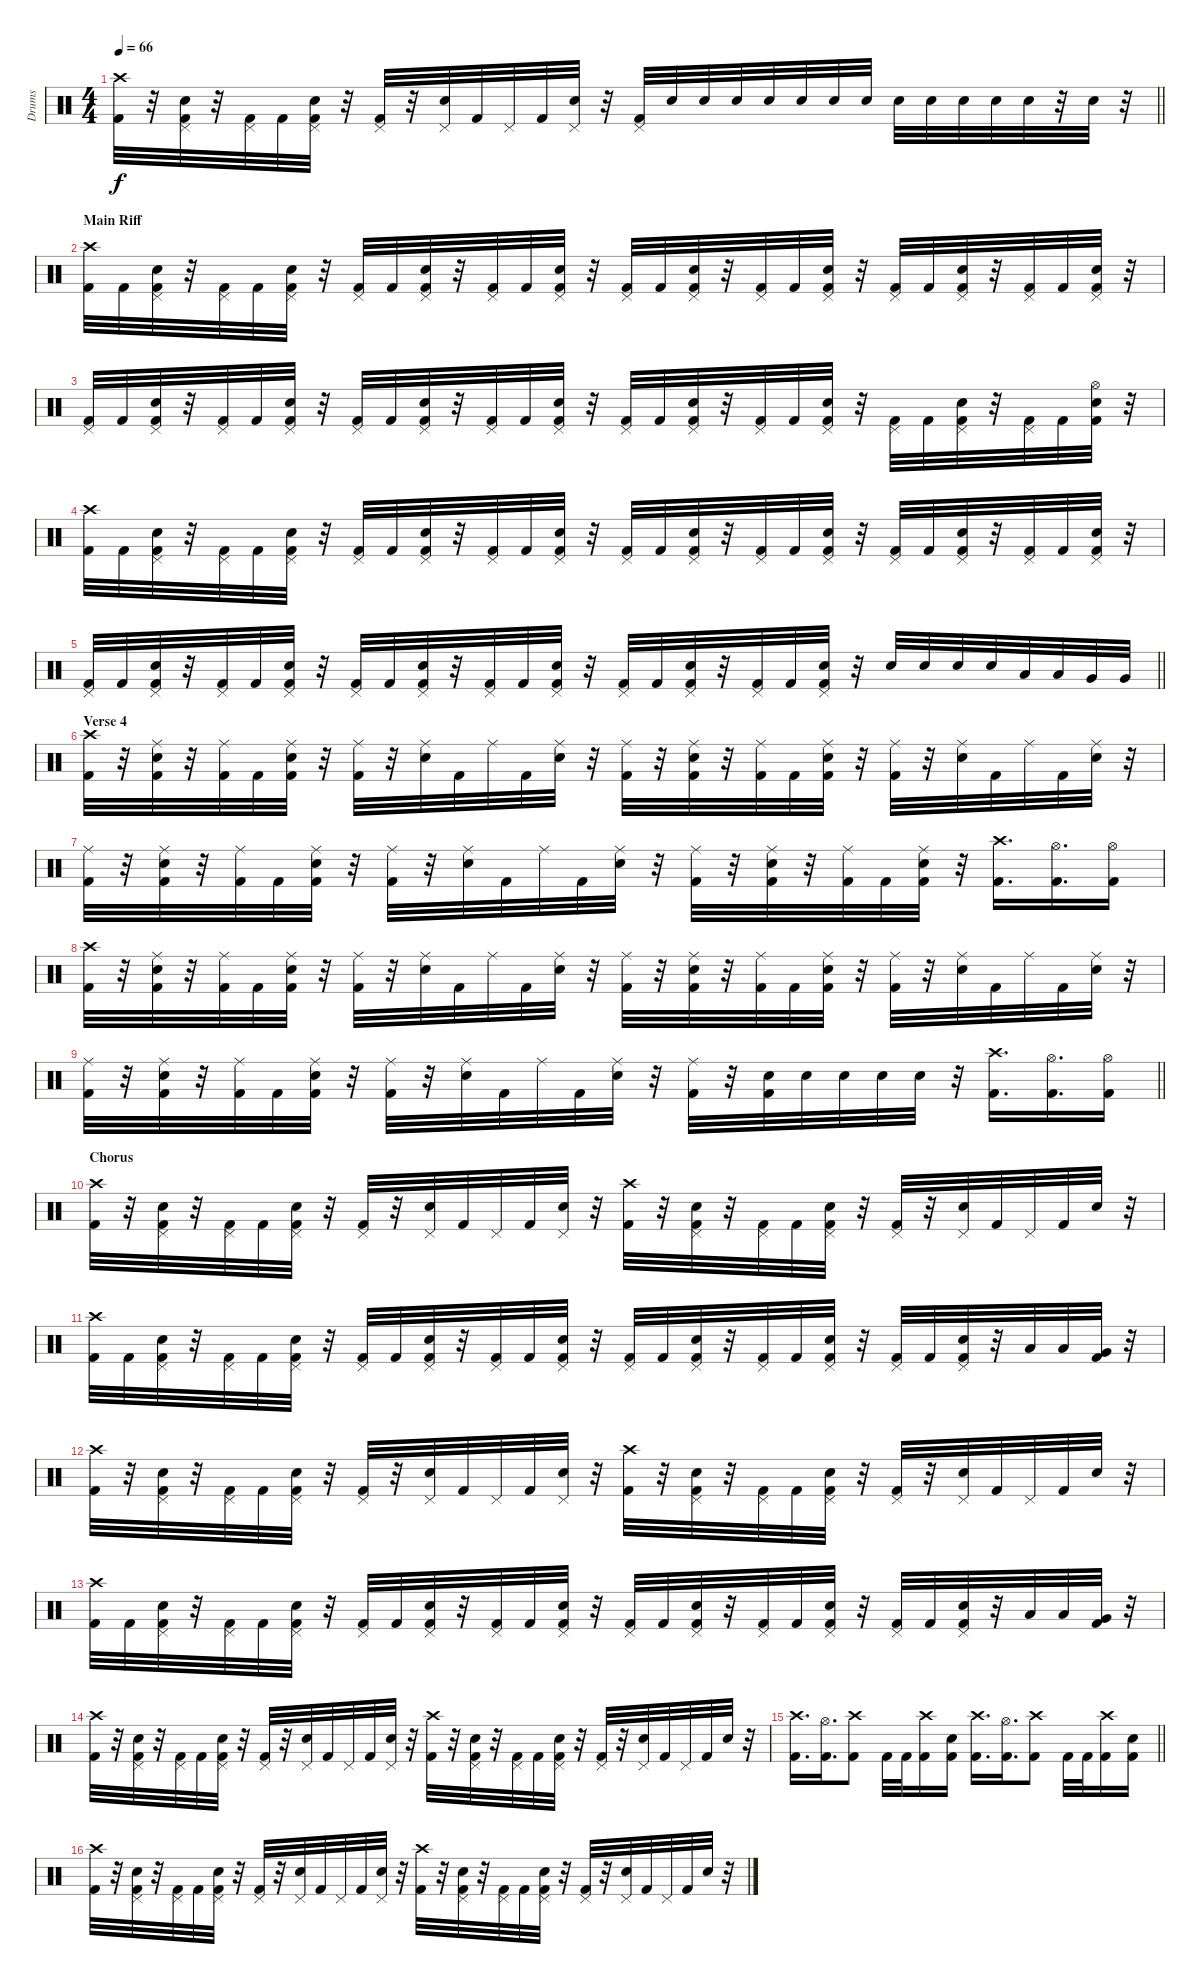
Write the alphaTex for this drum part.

\track ("Drums" "Drums") {instrument percussion}
\staff {score}
\articulation defaults
\ts (4 4)
\tempo 66
\clef neutral
\barLineRight lightlight
\ks c
("Crash high (hit)" "Kick (hit) 2").32{dy f} r.32 ("Pedal Hi-Hat (hit)" "Snare (hit) 2" "Kick (hit) 2").32 r.32 ("Pedal Hi-Hat (hit)" "Kick (hit) 2").32 "Kick (hit) 2".32 ("Pedal Hi-Hat (hit)" "Snare (hit) 2" "Kick (hit) 2").32 r.32 ("Pedal Hi-Hat (hit)" "Kick (hit) 2").32 r.32 ("Pedal Hi-Hat (hit)" "Snare (hit) 2").32 "Kick (hit) 2".32 "Pedal Hi-Hat (hit)".32 "Kick (hit) 2".32 ("Pedal Hi-Hat (hit)" "Snare (hit) 2").32 r.32 ("Pedal Hi-Hat (hit)" "Kick (hit) 2").32 "Snare (hit) 2".32 "Snare (hit) 2".32 "Snare (hit) 2".32 "Snare (hit) 2".32 "Snare (hit) 2".32 "Snare (hit) 2".32 "Snare (hit) 2".32 "Snare (hit) 2".32 "Snare (hit) 2".32 "Snare (hit) 2".32 "Snare (hit) 2".32 "Snare (hit) 2".32 r.32 "Snare (hit) 2".32 r.32 |
\section ("" "Main Riff")
("Crash high (hit)" "Kick (hit) 2").32 "Kick (hit) 2".32 ("Pedal Hi-Hat (hit)" "Snare (hit) 2" "Kick (hit) 2").32 r.32 ("Pedal Hi-Hat (hit)" "Kick (hit) 2").32 "Kick (hit) 2".32 ("Pedal Hi-Hat (hit)" "Snare (hit) 2" "Kick (hit) 2").32 r.32 ("Pedal Hi-Hat (hit)" "Kick (hit) 2").32 "Kick (hit) 2".32 ("Pedal Hi-Hat (hit)" "Snare (hit) 2" "Kick (hit) 2").32 r.32 ("Pedal Hi-Hat (hit)" "Kick (hit) 2").32 "Kick (hit) 2".32 ("Pedal Hi-Hat (hit)" "Snare (hit) 2" "Kick (hit) 2").32 r.32 ("Pedal Hi-Hat (hit)" "Kick (hit) 2").32 "Kick (hit) 2".32 ("Pedal Hi-Hat (hit)" "Snare (hit) 2" "Kick (hit) 2").32 r.32 ("Pedal Hi-Hat (hit)" "Kick (hit) 2").32 "Kick (hit) 2".32 ("Pedal Hi-Hat (hit)" "Snare (hit) 2" "Kick (hit) 2").32 r.32 ("Pedal Hi-Hat (hit)" "Kick (hit) 2").32 "Kick (hit) 2".32 ("Pedal Hi-Hat (hit)" "Snare (hit) 2" "Kick (hit) 2").32 r.32 ("Pedal Hi-Hat (hit)" "Kick (hit) 2").32 "Kick (hit) 2".32 ("Pedal Hi-Hat (hit)" "Snare (hit) 2" "Kick (hit) 2").32 r.32 |
("Pedal Hi-Hat (hit)" "Kick (hit) 2").32 "Kick (hit) 2".32 ("Pedal Hi-Hat (hit)" "Snare (hit) 2" "Kick (hit) 2").32 r.32 ("Pedal Hi-Hat (hit)" "Kick (hit) 2").32 "Kick (hit) 2".32 ("Pedal Hi-Hat (hit)" "Snare (hit) 2" "Kick (hit) 2").32 r.32 ("Pedal Hi-Hat (hit)" "Kick (hit) 2").32 "Kick (hit) 2".32 ("Pedal Hi-Hat (hit)" "Snare (hit) 2" "Kick (hit) 2").32 r.32 ("Pedal Hi-Hat (hit)" "Kick (hit) 2").32 "Kick (hit) 2".32 ("Pedal Hi-Hat (hit)" "Snare (hit) 2" "Kick (hit) 2").32 r.32 ("Pedal Hi-Hat (hit)" "Kick (hit) 2").32 "Kick (hit) 2".32 ("Pedal Hi-Hat (hit)" "Snare (hit) 2" "Kick (hit) 2").32 r.32 ("Pedal Hi-Hat (hit)" "Kick (hit) 2").32 "Kick (hit) 2".32 ("Pedal Hi-Hat (hit)" "Snare (hit) 2" "Kick (hit) 2").32 r.32 ("Pedal Hi-Hat (hit)" "Kick (hit) 2").32 "Kick (hit) 2".32 ("Pedal Hi-Hat (hit)" "Snare (hit) 2" "Kick (hit) 2").32 r.32 ("Pedal Hi-Hat (hit)" "Kick (hit) 2").32 "Kick (hit) 2".32 ("Hi-Hat (open)" "Snare (hit) 2" "Kick (hit) 2").32 r.32 |
("Crash high (hit)" "Kick (hit) 2").32 "Kick (hit) 2".32 ("Pedal Hi-Hat (hit)" "Snare (hit) 2" "Kick (hit) 2").32 r.32 ("Pedal Hi-Hat (hit)" "Kick (hit) 2").32 "Kick (hit) 2".32 ("Pedal Hi-Hat (hit)" "Snare (hit) 2" "Kick (hit) 2").32 r.32 ("Pedal Hi-Hat (hit)" "Kick (hit) 2").32 "Kick (hit) 2".32 ("Pedal Hi-Hat (hit)" "Snare (hit) 2" "Kick (hit) 2").32 r.32 ("Pedal Hi-Hat (hit)" "Kick (hit) 2").32 "Kick (hit) 2".32 ("Pedal Hi-Hat (hit)" "Snare (hit) 2" "Kick (hit) 2").32 r.32 ("Pedal Hi-Hat (hit)" "Kick (hit) 2").32 "Kick (hit) 2".32 ("Pedal Hi-Hat (hit)" "Snare (hit) 2" "Kick (hit) 2").32 r.32 ("Pedal Hi-Hat (hit)" "Kick (hit) 2").32 "Kick (hit) 2".32 ("Pedal Hi-Hat (hit)" "Snare (hit) 2" "Kick (hit) 2").32 r.32 ("Pedal Hi-Hat (hit)" "Kick (hit) 2").32 "Kick (hit) 2".32 ("Pedal Hi-Hat (hit)" "Snare (hit) 2" "Kick (hit) 2").32 r.32 ("Pedal Hi-Hat (hit)" "Kick (hit) 2").32 "Kick (hit) 2".32 ("Pedal Hi-Hat (hit)" "Snare (hit) 2" "Kick (hit) 2").32 r.32 |
\barLineRight lightlight
("Pedal Hi-Hat (hit)" "Kick (hit) 2").32 "Kick (hit) 2".32 ("Pedal Hi-Hat (hit)" "Snare (hit) 2" "Kick (hit) 2").32 r.32 ("Pedal Hi-Hat (hit)" "Kick (hit) 2").32 "Kick (hit) 2".32 ("Pedal Hi-Hat (hit)" "Snare (hit) 2" "Kick (hit) 2").32 r.32 ("Pedal Hi-Hat (hit)" "Kick (hit) 2").32 "Kick (hit) 2".32 ("Pedal Hi-Hat (hit)" "Snare (hit) 2" "Kick (hit) 2").32 r.32 ("Pedal Hi-Hat (hit)" "Kick (hit) 2").32 "Kick (hit) 2".32 ("Pedal Hi-Hat (hit)" "Snare (hit) 2" "Kick (hit) 2").32 r.32 ("Pedal Hi-Hat (hit)" "Kick (hit) 2").32 "Kick (hit) 2".32 ("Pedal Hi-Hat (hit)" "Snare (hit) 2" "Kick (hit) 2").32 r.32 ("Pedal Hi-Hat (hit)" "Kick (hit) 2").32 "Kick (hit) 2".32 ("Pedal Hi-Hat (hit)" "Snare (hit) 2" "Kick (hit) 2").32 r.32 "Snare (hit) 2".32 "Snare (hit) 2".32 "Snare (hit) 2".32 "Snare (hit) 2".32 "Low Tom (hit)".32 "Low Tom (hit)".32 "Very Low Tom (hit)".32 "Very Low Tom (hit)".32 |
\section ("" "Verse 4")
("Crash high (hit)" "Kick (hit) 2").32 r.32 ("Ride (middle)" "Snare (hit) 2" "Kick (hit) 2").32 r.32 ("Ride (middle)" "Kick (hit) 2").32 "Kick (hit) 2".32 ("Ride (middle)" "Snare (hit) 2" "Kick (hit) 2").32 r.32 ("Ride (middle)" "Kick (hit) 2").32 r.32 ("Ride (middle)" "Snare (hit) 2").32 "Kick (hit) 2".32 "Ride (middle)".32 "Kick (hit) 2".32 ("Ride (middle)" "Snare (hit) 2").32 r.32 ("Ride (middle)" "Kick (hit) 2").32 r.32 ("Ride (middle)" "Snare (hit) 2" "Kick (hit) 2").32 r.32 ("Ride (middle)" "Kick (hit) 2").32 "Kick (hit) 2".32 ("Ride (middle)" "Snare (hit) 2" "Kick (hit) 2").32 r.32 ("Ride (middle)" "Kick (hit) 2").32 r.32 ("Ride (middle)" "Snare (hit) 2").32 "Kick (hit) 2".32 "Ride (middle)".32 "Kick (hit) 2".32 ("Ride (middle)" "Snare (hit) 2").32 r.32 |
("Ride (middle)" "Kick (hit) 2").32 r.32 ("Ride (middle)" "Snare (hit) 2" "Kick (hit) 2").32 r.32 ("Ride (middle)" "Kick (hit) 2").32 "Kick (hit) 2".32 ("Ride (middle)" "Snare (hit) 2" "Kick (hit) 2").32 r.32 ("Ride (middle)" "Kick (hit) 2").32 r.32 ("Ride (middle)" "Snare (hit) 2").32 "Kick (hit) 2".32 "Ride (middle)".32 "Kick (hit) 2".32 ("Ride (middle)" "Snare (hit) 2").32 r.32 ("Ride (middle)" "Kick (hit) 2").32 r.32 ("Ride (middle)" "Snare (hit) 2" "Kick (hit) 2").32 r.32 ("Ride (middle)" "Kick (hit) 2").32 "Kick (hit) 2".32 ("Ride (middle)" "Snare (hit) 2" "Kick (hit) 2").32 r.32 ("Crash high (hit)" "Kick (hit) 2").16{d} ("Hi-Hat (open)" "Kick (hit) 2").16{d} ("Hi-Hat (open)" "Kick (hit) 2").16 |
("Crash high (hit)" "Kick (hit) 2").32 r.32 ("Ride (middle)" "Snare (hit) 2" "Kick (hit) 2").32 r.32 ("Ride (middle)" "Kick (hit) 2").32 "Kick (hit) 2".32 ("Ride (middle)" "Snare (hit) 2" "Kick (hit) 2").32 r.32 ("Ride (middle)" "Kick (hit) 2").32 r.32 ("Ride (middle)" "Snare (hit) 2").32 "Kick (hit) 2".32 "Ride (middle)".32 "Kick (hit) 2".32 ("Ride (middle)" "Snare (hit) 2").32 r.32 ("Ride (middle)" "Kick (hit) 2").32 r.32 ("Ride (middle)" "Snare (hit) 2" "Kick (hit) 2").32 r.32 ("Ride (middle)" "Kick (hit) 2").32 "Kick (hit) 2".32 ("Ride (middle)" "Snare (hit) 2" "Kick (hit) 2").32 r.32 ("Ride (middle)" "Kick (hit) 2").32 r.32 ("Ride (middle)" "Snare (hit) 2").32 "Kick (hit) 2".32 "Ride (middle)".32 "Kick (hit) 2".32 ("Ride (middle)" "Snare (hit) 2").32 r.32 |
\barLineRight lightlight
("Ride (middle)" "Kick (hit) 2").32 r.32 ("Ride (middle)" "Snare (hit) 2" "Kick (hit) 2").32 r.32 ("Ride (middle)" "Kick (hit) 2").32 "Kick (hit) 2".32 ("Ride (middle)" "Snare (hit) 2" "Kick (hit) 2").32 r.32 ("Ride (middle)" "Kick (hit) 2").32 r.32 ("Ride (middle)" "Snare (hit) 2").32 "Kick (hit) 2".32 "Ride (middle)".32 "Kick (hit) 2".32 ("Ride (middle)" "Snare (hit) 2").32 r.32 ("Ride (middle)" "Kick (hit) 2").32 r.32 ("Snare (hit) 2" "Kick (hit) 2").32 "Snare (hit) 2".32 "Snare (hit) 2".32 "Snare (hit) 2".32 "Snare (hit) 2".32 r.32 ("Crash high (hit)" "Kick (hit) 2").16{d} ("Hi-Hat (open)" "Kick (hit) 2").16{d} ("Hi-Hat (open)" "Kick (hit) 2").16 |
\section ("" "Chorus")
("Crash high (hit)" "Kick (hit) 2").32 r.32 ("Pedal Hi-Hat (hit)" "Snare (hit) 2" "Kick (hit) 2").32 r.32 ("Pedal Hi-Hat (hit)" "Kick (hit) 2").32 "Kick (hit) 2".32 ("Pedal Hi-Hat (hit)" "Snare (hit) 2" "Kick (hit) 2").32 r.32 ("Pedal Hi-Hat (hit)" "Kick (hit) 2").32 r.32 ("Pedal Hi-Hat (hit)" "Snare (hit) 2").32 "Kick (hit) 2".32 "Pedal Hi-Hat (hit)".32 "Kick (hit) 2".32 ("Pedal Hi-Hat (hit)" "Snare (hit) 2").32 r.32 ("Crash high (hit)" "Kick (hit) 2").32 r.32 ("Pedal Hi-Hat (hit)" "Snare (hit) 2" "Kick (hit) 2").32 r.32 ("Pedal Hi-Hat (hit)" "Kick (hit) 2").32 "Kick (hit) 2".32 ("Pedal Hi-Hat (hit)" "Snare (hit) 2" "Kick (hit) 2").32 r.32 ("Pedal Hi-Hat (hit)" "Kick (hit) 2").32 r.32 ("Pedal Hi-Hat (hit)" "Snare (hit) 2").32 "Kick (hit) 2".32 "Pedal Hi-Hat (hit)".32 "Kick (hit) 2".32 "Snare (hit) 2".32 r.32 |
("Crash high (hit)" "Kick (hit) 2").32 "Kick (hit) 2".32 ("Pedal Hi-Hat (hit)" "Snare (hit) 2" "Kick (hit) 2").32 r.32 ("Pedal Hi-Hat (hit)" "Kick (hit) 2").32 "Kick (hit) 2".32 ("Pedal Hi-Hat (hit)" "Snare (hit) 2" "Kick (hit) 2").32 r.32 ("Pedal Hi-Hat (hit)" "Kick (hit) 2").32 "Kick (hit) 2".32 ("Pedal Hi-Hat (hit)" "Snare (hit) 2" "Kick (hit) 2").32 r.32 ("Pedal Hi-Hat (hit)" "Kick (hit) 2").32 "Kick (hit) 2".32 ("Pedal Hi-Hat (hit)" "Snare (hit) 2" "Kick (hit) 2").32 r.32 ("Pedal Hi-Hat (hit)" "Kick (hit) 2").32 "Kick (hit) 2".32 ("Pedal Hi-Hat (hit)" "Snare (hit) 2" "Kick (hit) 2").32 r.32 ("Pedal Hi-Hat (hit)" "Kick (hit) 2").32 "Kick (hit) 2".32 ("Pedal Hi-Hat (hit)" "Snare (hit) 2" "Kick (hit) 2").32 r.32 ("Pedal Hi-Hat (hit)" "Kick (hit) 2").32 "Kick (hit) 2".32 ("Pedal Hi-Hat (hit)" "Snare (hit) 2" "Kick (hit) 2").32 r.32 "Low Tom (hit)".32 "Low Tom (hit)".32 ("Very Low Tom (hit)" "Kick (hit) 2").32 r.32 |
("Crash high (hit)" "Kick (hit) 2").32 r.32 ("Pedal Hi-Hat (hit)" "Snare (hit) 2" "Kick (hit) 2").32 r.32 ("Pedal Hi-Hat (hit)" "Kick (hit) 2").32 "Kick (hit) 2".32 ("Pedal Hi-Hat (hit)" "Snare (hit) 2" "Kick (hit) 2").32 r.32 ("Pedal Hi-Hat (hit)" "Kick (hit) 2").32 r.32 ("Pedal Hi-Hat (hit)" "Snare (hit) 2").32 "Kick (hit) 2".32 "Pedal Hi-Hat (hit)".32 "Kick (hit) 2".32 ("Pedal Hi-Hat (hit)" "Snare (hit) 2").32 r.32 ("Crash high (hit)" "Kick (hit) 2").32 r.32 ("Pedal Hi-Hat (hit)" "Snare (hit) 2" "Kick (hit) 2").32 r.32 ("Pedal Hi-Hat (hit)" "Kick (hit) 2").32 "Kick (hit) 2".32 ("Pedal Hi-Hat (hit)" "Snare (hit) 2" "Kick (hit) 2").32 r.32 ("Pedal Hi-Hat (hit)" "Kick (hit) 2").32 r.32 ("Pedal Hi-Hat (hit)" "Snare (hit) 2").32 "Kick (hit) 2".32 "Pedal Hi-Hat (hit)".32 "Kick (hit) 2".32 "Snare (hit) 2".32 r.32 |
("Crash high (hit)" "Kick (hit) 2").32 "Kick (hit) 2".32 ("Pedal Hi-Hat (hit)" "Snare (hit) 2" "Kick (hit) 2").32 r.32 ("Pedal Hi-Hat (hit)" "Kick (hit) 2").32 "Kick (hit) 2".32 ("Pedal Hi-Hat (hit)" "Snare (hit) 2" "Kick (hit) 2").32 r.32 ("Pedal Hi-Hat (hit)" "Kick (hit) 2").32 "Kick (hit) 2".32 ("Pedal Hi-Hat (hit)" "Snare (hit) 2" "Kick (hit) 2").32 r.32 ("Pedal Hi-Hat (hit)" "Kick (hit) 2").32 "Kick (hit) 2".32 ("Pedal Hi-Hat (hit)" "Snare (hit) 2" "Kick (hit) 2").32 r.32 ("Pedal Hi-Hat (hit)" "Kick (hit) 2").32 "Kick (hit) 2".32 ("Pedal Hi-Hat (hit)" "Snare (hit) 2" "Kick (hit) 2").32 r.32 ("Pedal Hi-Hat (hit)" "Kick (hit) 2").32 "Kick (hit) 2".32 ("Pedal Hi-Hat (hit)" "Snare (hit) 2" "Kick (hit) 2").32 r.32 ("Pedal Hi-Hat (hit)" "Kick (hit) 2").32 "Kick (hit) 2".32 ("Pedal Hi-Hat (hit)" "Snare (hit) 2" "Kick (hit) 2").32 r.32 "Low Tom (hit)".32 "Low Tom (hit)".32 ("Very Low Tom (hit)" "Kick (hit) 2").32 r.32 |
("Crash high (hit)" "Kick (hit) 2").32 r.32 ("Pedal Hi-Hat (hit)" "Snare (hit) 2" "Kick (hit) 2").32 r.32 ("Pedal Hi-Hat (hit)" "Kick (hit) 2").32 "Kick (hit) 2".32 ("Pedal Hi-Hat (hit)" "Snare (hit) 2" "Kick (hit) 2").32 r.32 ("Pedal Hi-Hat (hit)" "Kick (hit) 2").32 r.32 ("Pedal Hi-Hat (hit)" "Snare (hit) 2").32 "Kick (hit) 2".32 "Pedal Hi-Hat (hit)".32 "Kick (hit) 2".32 ("Pedal Hi-Hat (hit)" "Snare (hit) 2").32 r.32 ("Crash high (hit)" "Kick (hit) 2").32 r.32 ("Pedal Hi-Hat (hit)" "Snare (hit) 2" "Kick (hit) 2").32 r.32 ("Pedal Hi-Hat (hit)" "Kick (hit) 2").32 "Kick (hit) 2".32 ("Pedal Hi-Hat (hit)" "Snare (hit) 2" "Kick (hit) 2").32 r.32 ("Pedal Hi-Hat (hit)" "Kick (hit) 2").32 r.32 ("Pedal Hi-Hat (hit)" "Snare (hit) 2").32 "Kick (hit) 2".32 "Pedal Hi-Hat (hit)".32 "Kick (hit) 2".32 "Snare (hit) 2".32 r.32 |
\barLineRight lightlight
("Crash high (hit)" "Kick (hit) 2").16{d} ("Hi-Hat (open)" "Kick (hit) 2").16{d} ("Crash high (hit)" "Kick (hit) 2").8 "Kick (hit) 2".32 "Kick (hit) 2".32 ("Crash high (hit)" "Kick (hit) 2").16 ("Snare (hit) 2" "Kick (hit) 2").16 ("Crash high (hit)" "Kick (hit) 2").16{d} ("Hi-Hat (open)" "Kick (hit) 2").16{d} ("Crash high (hit)" "Kick (hit) 2").8 "Kick (hit) 2".32 "Kick (hit) 2".32 ("Crash high (hit)" "Kick (hit) 2").16 ("Snare (hit) 2" "Kick (hit) 2").16 |
("Crash high (hit)" "Kick (hit) 2").32 r.32 ("Pedal Hi-Hat (hit)" "Snare (hit) 2" "Kick (hit) 2").32 r.32 ("Pedal Hi-Hat (hit)" "Kick (hit) 2").32 "Kick (hit) 2".32 ("Pedal Hi-Hat (hit)" "Snare (hit) 2" "Kick (hit) 2").32 r.32 ("Pedal Hi-Hat (hit)" "Kick (hit) 2").32 r.32 ("Pedal Hi-Hat (hit)" "Snare (hit) 2").32 "Kick (hit) 2".32 "Pedal Hi-Hat (hit)".32 "Kick (hit) 2".32 ("Pedal Hi-Hat (hit)" "Snare (hit) 2").32 r.32 ("Crash high (hit)" "Kick (hit) 2").32 r.32 ("Pedal Hi-Hat (hit)" "Snare (hit) 2" "Kick (hit) 2").32 r.32 ("Pedal Hi-Hat (hit)" "Kick (hit) 2").32 "Kick (hit) 2".32 ("Pedal Hi-Hat (hit)" "Snare (hit) 2" "Kick (hit) 2").32 r.32 ("Pedal Hi-Hat (hit)" "Kick (hit) 2").32 r.32 ("Pedal Hi-Hat (hit)" "Snare (hit) 2").32 "Kick (hit) 2".32 "Pedal Hi-Hat (hit)".32 "Kick (hit) 2".32 "Snare (hit) 2".32 r.32
